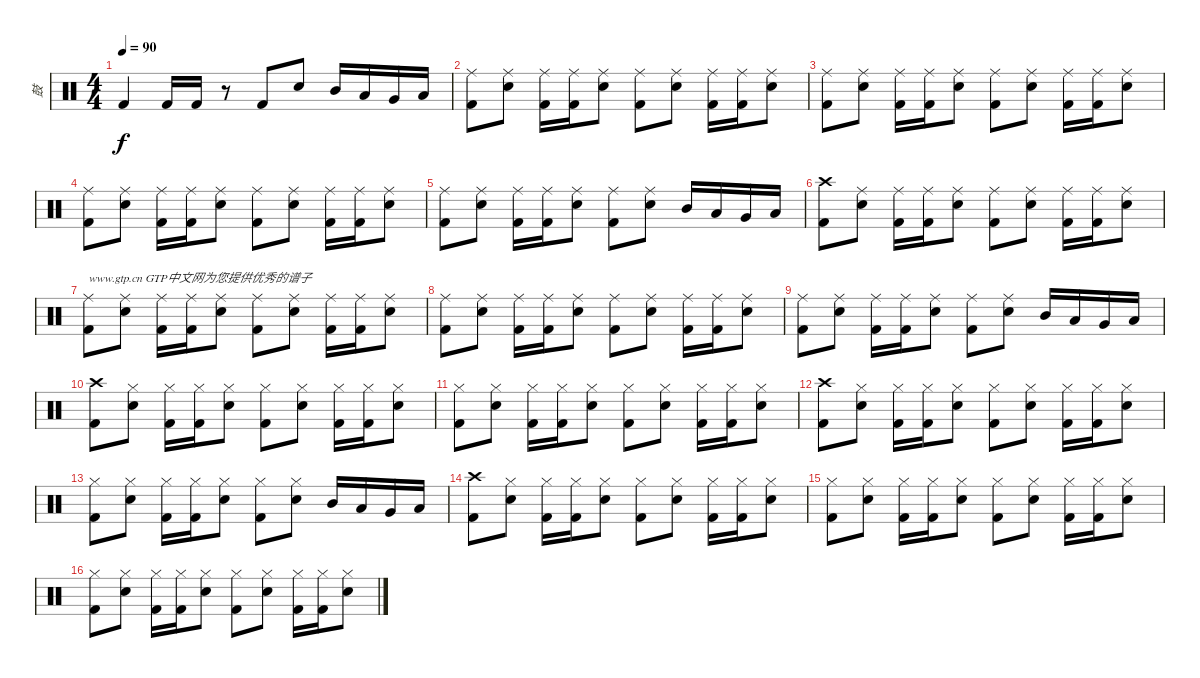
\track ("鼓" "鼓") {instrument percussion}
\staff {score}
\articulation defaults
\ts (4 4)
\tempo 90
\clef neutral
\ks c "Kick (hit) 2".4{dy f} "Kick (hit) 2".16 "Kick (hit) 2".16
r.8 "Kick (hit) 2".8 "Electric Snare (hit)".8 "Mid Tom (hit)".16 "Low Tom (hit)".16 "Very Low Tom (hit)".16 "Low Floor Tom (hit)".16 |
("Kick (hit) 2" "Ride (middle)").8 ("Electric Snare (hit)" "Ride (middle)").8 ("Kick (hit) 2" "Ride (middle)").16 ("Kick (hit) 2" "Ride (middle)").16 ("Electric Snare (hit)" "Ride (middle)").8 ("Kick (hit) 2" "Ride (middle)").8 ("Electric Snare (hit)" "Ride (middle)").8 ("Kick (hit) 2" "Ride (middle)").16 ("Kick (hit) 2" "Ride (middle)").16 ("Electric Snare (hit)" "Ride (middle)").8 |
("Kick (hit) 2" "Ride (middle)").8 ("Electric Snare (hit)" "Ride (middle)").8 ("Kick (hit) 2" "Ride (middle)").16 ("Kick (hit) 2" "Ride (middle)").16 ("Electric Snare (hit)" "Ride (middle)").8 ("Kick (hit) 2" "Ride (middle)").8 ("Electric Snare (hit)" "Ride (middle)").8 ("Kick (hit) 2" "Ride (middle)").16 ("Kick (hit) 2" "Ride (middle)").16 ("Electric Snare (hit)" "Ride (middle)").8 |
("Kick (hit) 2" "Ride (middle)").8 ("Electric Snare (hit)" "Ride (middle)").8 ("Kick (hit) 2" "Ride (middle)").16 ("Kick (hit) 2" "Ride (middle)").16 ("Electric Snare (hit)" "Ride (middle)").8 ("Kick (hit) 2" "Ride (middle)").8 ("Electric Snare (hit)" "Ride (middle)").8 ("Kick (hit) 2" "Ride (middle)").16 ("Kick (hit) 2" "Ride (middle)").16 ("Electric Snare (hit)" "Ride (middle)").8 |
("Kick (hit) 2" "Ride (middle)").8 ("Electric Snare (hit)" "Ride (middle)").8 ("Kick (hit) 2" "Ride (middle)").16 ("Kick (hit) 2" "Ride (middle)").16 ("Electric Snare (hit)" "Ride (middle)").8 ("Kick (hit) 2" "Ride (middle)").8 ("Electric Snare (hit)" "Ride (middle)").8 "Mid Tom (hit)".16 "Low Tom (hit)".16 "Very Low Tom (hit)".16 "Low Floor Tom (hit)".16 |
("Kick (hit) 2" "Crash high (hit)").8 ("Electric Snare (hit)" "Ride (middle)").8 ("Kick (hit) 2" "Ride (middle)").16 ("Kick (hit) 2" "Ride (middle)").16 ("Electric Snare (hit)" "Ride (middle)").8 ("Kick (hit) 2" "Ride (middle)").8 ("Electric Snare (hit)" "Ride (middle)").8 ("Kick (hit) 2" "Ride (middle)").16 ("Kick (hit) 2" "Ride (middle)").16 ("Electric Snare (hit)" "Ride (middle)").8 |
("Kick (hit) 2" "Ride (middle)").8{txt "www.gtp.cn GTP中文网为您提供优秀的谱子"} ("Electric Snare (hit)" "Ride (middle)").8 ("Kick (hit) 2" "Ride (middle)").16 ("Kick (hit) 2" "Ride (middle)").16 ("Electric Snare (hit)" "Ride (middle)").8 ("Kick (hit) 2" "Ride (middle)").8 ("Electric Snare (hit)" "Ride (middle)").8 ("Kick (hit) 2" "Ride (middle)").16 ("Kick (hit) 2" "Ride (middle)").16 ("Electric Snare (hit)" "Ride (middle)").8 |
("Kick (hit) 2" "Ride (middle)").8 ("Electric Snare (hit)" "Ride (middle)").8 ("Kick (hit) 2" "Ride (middle)").16 ("Kick (hit) 2" "Ride (middle)").16 ("Electric Snare (hit)" "Ride (middle)").8 ("Kick (hit) 2" "Ride (middle)").8 ("Electric Snare (hit)" "Ride (middle)").8 ("Kick (hit) 2" "Ride (middle)").16 ("Kick (hit) 2" "Ride (middle)").16 ("Electric Snare (hit)" "Ride (middle)").8 |
("Kick (hit) 2" "Ride (middle)").8 ("Electric Snare (hit)" "Ride (middle)").8 ("Kick (hit) 2" "Ride (middle)").16 ("Kick (hit) 2" "Ride (middle)").16 ("Electric Snare (hit)" "Ride (middle)").8 ("Kick (hit) 2" "Ride (middle)").8 ("Electric Snare (hit)" "Ride (middle)").8 "Mid Tom (hit)".16 "Low Tom (hit)".16 "Very Low Tom (hit)".16 "Low Floor Tom (hit)".16 |
("Kick (hit) 2" "Crash high (hit)").8 ("Electric Snare (hit)" "Hi-Hat (closed)").8 ("Kick (hit) 2" "Hi-Hat (closed)").16 ("Kick (hit) 2" "Hi-Hat (closed)").16 ("Electric Snare (hit)" "Hi-Hat (closed)").8 ("Kick (hit) 2" "Hi-Hat (closed)").8 ("Electric Snare (hit)" "Hi-Hat (closed)").8 ("Kick (hit) 2" "Hi-Hat (closed)").16 ("Kick (hit) 2" "Hi-Hat (closed)").16 ("Electric Snare (hit)" "Hi-Hat (closed)").8 |
("Kick (hit) 2" "Hi-Hat (closed)").8 ("Electric Snare (hit)" "Hi-Hat (closed)").8 ("Kick (hit) 2" "Hi-Hat (closed)").16 ("Kick (hit) 2" "Hi-Hat (closed)").16 ("Electric Snare (hit)" "Hi-Hat (closed)").8 ("Kick (hit) 2" "Hi-Hat (closed)").8 ("Electric Snare (hit)" "Hi-Hat (closed)").8 ("Kick (hit) 2" "Hi-Hat (closed)").16 ("Kick (hit) 2" "Hi-Hat (closed)").16 ("Electric Snare (hit)" "Hi-Hat (closed)").8 |
("Kick (hit) 2" "Crash high (hit)").8 ("Electric Snare (hit)" "Hi-Hat (closed)").8 ("Kick (hit) 2" "Hi-Hat (closed)").16 ("Kick (hit) 2" "Hi-Hat (closed)").16 ("Electric Snare (hit)" "Hi-Hat (closed)").8 ("Kick (hit) 2" "Hi-Hat (closed)").8 ("Electric Snare (hit)" "Hi-Hat (closed)").8 ("Kick (hit) 2" "Hi-Hat (closed)").16 ("Kick (hit) 2" "Hi-Hat (closed)").16 ("Electric Snare (hit)" "Hi-Hat (closed)").8 |
("Kick (hit) 2" "Hi-Hat (closed)").8 ("Electric Snare (hit)" "Hi-Hat (closed)").8 ("Kick (hit) 2" "Hi-Hat (closed)").16 ("Kick (hit) 2" "Hi-Hat (closed)").16 ("Electric Snare (hit)" "Hi-Hat (closed)").8 ("Kick (hit) 2" "Hi-Hat (closed)").8 ("Electric Snare (hit)" "Hi-Hat (closed)").8 "Mid Tom (hit)".16 "Low Tom (hit)".16 "Very Low Tom (hit)".16 "Low Floor Tom (hit)".16 |
("Kick (hit) 2" "Crash high (hit)").8 ("Electric Snare (hit)" "Hi-Hat (closed)").8 ("Kick (hit) 2" "Hi-Hat (closed)").16 ("Kick (hit) 2" "Hi-Hat (closed)").16 ("Electric Snare (hit)" "Hi-Hat (closed)").8 ("Kick (hit) 2" "Hi-Hat (closed)").8 ("Electric Snare (hit)" "Hi-Hat (closed)").8 ("Kick (hit) 2" "Hi-Hat (closed)").16 ("Kick (hit) 2" "Hi-Hat (closed)").16 ("Electric Snare (hit)" "Hi-Hat (closed)").8 |
("Kick (hit) 2" "Hi-Hat (closed)").8 ("Electric Snare (hit)" "Hi-Hat (closed)").8 ("Kick (hit) 2" "Hi-Hat (closed)").16 ("Kick (hit) 2" "Hi-Hat (closed)").16 ("Electric Snare (hit)" "Hi-Hat (closed)").8 ("Kick (hit) 2" "Hi-Hat (closed)").8 ("Electric Snare (hit)" "Hi-Hat (closed)").8 ("Kick (hit) 2" "Hi-Hat (closed)").16 ("Kick (hit) 2" "Hi-Hat (closed)").16 ("Electric Snare (hit)" "Hi-Hat (closed)").8 |
("Kick (hit) 2" "Hi-Hat (closed)").8 ("Electric Snare (hit)" "Hi-Hat (closed)").8 ("Kick (hit) 2" "Hi-Hat (closed)").16 ("Kick (hit) 2" "Hi-Hat (closed)").16 ("Electric Snare (hit)" "Hi-Hat (closed)").8 ("Kick (hit) 2" "Hi-Hat (closed)").8 ("Electric Snare (hit)" "Hi-Hat (closed)").8 ("Kick (hit) 2" "Hi-Hat (closed)").16 ("Kick (hit) 2" "Hi-Hat (closed)").16 ("Electric Snare (hit)" "Hi-Hat (closed)").8
